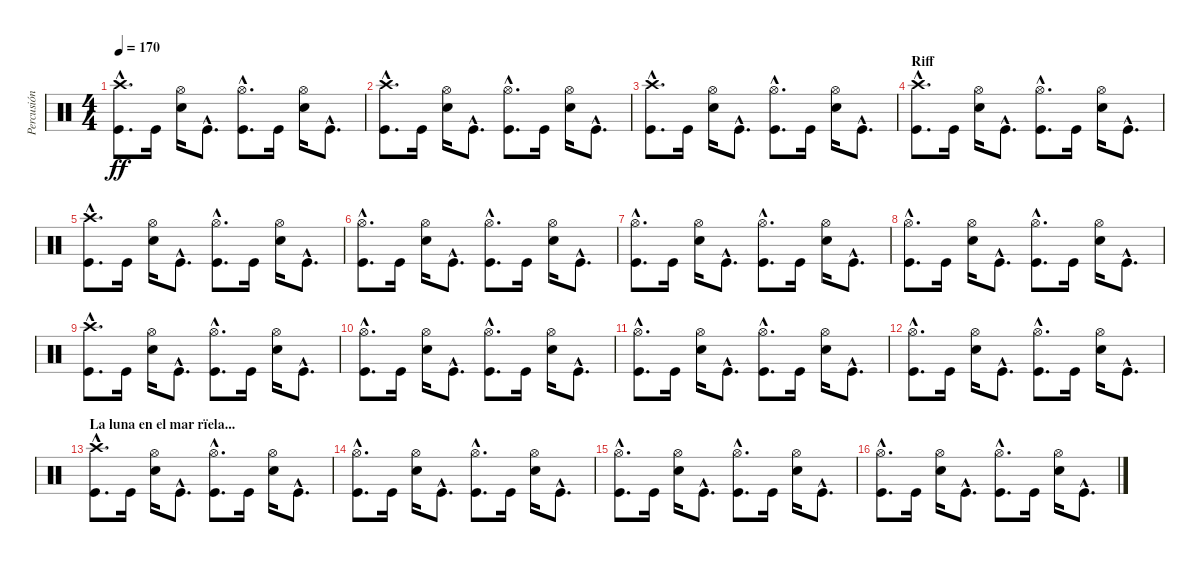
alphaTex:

\track ("Percusión" "Percusión") {instrument percussion}
\staff {score}
\articulation defaults
\ts (4 4)
\tempo 170
\clef neutral
\ks c
("Crash high (hit)"{hac} "Kick (hit)"{hac}).8{d dy ff} "Kick (hit)".16 ("Hi-Hat (open)" "Snare (hit) 2").16 "Kick (hit)"{hac}.8{d} ("Hi-Hat (open)"{hac} "Kick (hit)"{hac}).8{d} "Kick (hit)".16 ("Hi-Hat (open)" "Snare (hit) 2").16 "Kick (hit)"{hac}.8{d} |
("Crash high (hit)"{hac} "Kick (hit)"{hac}).8{d} "Kick (hit)".16 ("Hi-Hat (open)" "Snare (hit) 2").16 "Kick (hit)"{hac}.8{d} ("Hi-Hat (open)"{hac} "Kick (hit)"{hac}).8{d} "Kick (hit)".16 ("Hi-Hat (open)" "Snare (hit) 2").16 "Kick (hit)"{hac}.8{d} |
("Crash high (hit)"{hac} "Kick (hit)"{hac}).8{d} "Kick (hit)".16 ("Hi-Hat (open)" "Snare (hit) 2").16 "Kick (hit)"{hac}.8{d} ("Hi-Hat (open)"{hac} "Kick (hit)"{hac}).8{d} "Kick (hit)".16 ("Hi-Hat (open)" "Snare (hit) 2").16 "Kick (hit)"{hac}.8{d} |
\section ("" "Riff")
("Crash high (hit)"{hac} "Kick (hit)"{hac}).8{d} "Kick (hit)".16 ("Hi-Hat (open)" "Snare (hit) 2").16 "Kick (hit)"{hac}.8{d} ("Hi-Hat (open)"{hac} "Kick (hit)"{hac}).8{d} "Kick (hit)".16 ("Hi-Hat (open)" "Snare (hit) 2").16 "Kick (hit)"{hac}.8{d} |
("Crash high (hit)"{hac} "Kick (hit)"{hac}).8{d} "Kick (hit)".16 ("Hi-Hat (open)" "Snare (hit) 2").16 "Kick (hit)"{hac}.8{d} ("Hi-Hat (open)"{hac} "Kick (hit)"{hac}).8{d} "Kick (hit)".16 ("Hi-Hat (open)" "Snare (hit) 2").16 "Kick (hit)"{hac}.8{d} |
("Hi-Hat (open)"{hac} "Kick (hit)"{hac}).8{d} "Kick (hit)".16 ("Hi-Hat (open)" "Snare (hit) 2").16 "Kick (hit)"{hac}.8{d} ("Hi-Hat (open)"{hac} "Kick (hit)"{hac}).8{d} "Kick (hit)".16 ("Hi-Hat (open)" "Snare (hit) 2").16 "Kick (hit)"{hac}.8{d} |
("Hi-Hat (open)"{hac} "Kick (hit)"{hac}).8{d} "Kick (hit)".16 ("Hi-Hat (open)" "Snare (hit) 2").16 "Kick (hit)"{hac}.8{d} ("Hi-Hat (open)"{hac} "Kick (hit)"{hac}).8{d} "Kick (hit)".16 ("Hi-Hat (open)" "Snare (hit) 2").16 "Kick (hit)"{hac}.8{d} |
("Hi-Hat (open)"{hac} "Kick (hit)"{hac}).8{d} "Kick (hit)".16 ("Hi-Hat (open)" "Snare (hit) 2").16 "Kick (hit)"{hac}.8{d} ("Hi-Hat (open)"{hac} "Kick (hit)"{hac}).8{d} "Kick (hit)".16 ("Hi-Hat (open)" "Snare (hit) 2").16 "Kick (hit)"{hac}.8{d} |
("Crash high (hit)"{hac} "Kick (hit)"{hac}).8{d} "Kick (hit)".16 ("Hi-Hat (open)" "Snare (hit) 2").16 "Kick (hit)"{hac}.8{d} ("Hi-Hat (open)"{hac} "Kick (hit)"{hac}).8{d} "Kick (hit)".16 ("Hi-Hat (open)" "Snare (hit) 2").16 "Kick (hit)"{hac}.8{d} |
("Hi-Hat (open)"{hac} "Kick (hit)"{hac}).8{d} "Kick (hit)".16 ("Hi-Hat (open)" "Snare (hit) 2").16 "Kick (hit)"{hac}.8{d} ("Hi-Hat (open)"{hac} "Kick (hit)"{hac}).8{d} "Kick (hit)".16 ("Hi-Hat (open)" "Snare (hit) 2").16 "Kick (hit)"{hac}.8{d} |
("Hi-Hat (open)"{hac} "Kick (hit)"{hac}).8{d} "Kick (hit)".16 ("Hi-Hat (open)" "Snare (hit) 2").16 "Kick (hit)"{hac}.8{d} ("Hi-Hat (open)"{hac} "Kick (hit)"{hac}).8{d} "Kick (hit)".16 ("Hi-Hat (open)" "Snare (hit) 2").16 "Kick (hit)"{hac}.8{d} |
("Hi-Hat (open)"{hac} "Kick (hit)"{hac}).8{d} "Kick (hit)".16 ("Hi-Hat (open)" "Snare (hit) 2").16 "Kick (hit)"{hac}.8{d} ("Hi-Hat (open)"{hac} "Kick (hit)"{hac}).8{d} "Kick (hit)".16 ("Hi-Hat (open)" "Snare (hit) 2").16 "Kick (hit)"{hac}.8{d} |
\section ("" "La luna en el mar rïela...")
("Crash high (hit)"{hac} "Kick (hit)"{hac}).8{d} "Kick (hit)".16 ("Hi-Hat (open)" "Snare (hit) 2").16 "Kick (hit)"{hac}.8{d} ("Hi-Hat (open)"{hac} "Kick (hit)"{hac}).8{d} "Kick (hit)".16 ("Hi-Hat (open)" "Snare (hit) 2").16 "Kick (hit)"{hac}.8{d} |
("Hi-Hat (open)"{hac} "Kick (hit)"{hac}).8{d} "Kick (hit)".16 ("Hi-Hat (open)" "Snare (hit) 2").16 "Kick (hit)"{hac}.8{d} ("Hi-Hat (open)"{hac} "Kick (hit)"{hac}).8{d} "Kick (hit)".16 ("Hi-Hat (open)" "Snare (hit) 2").16 "Kick (hit)"{hac}.8{d} |
("Hi-Hat (open)"{hac} "Kick (hit)"{hac}).8{d} "Kick (hit)".16 ("Hi-Hat (open)" "Snare (hit) 2").16 "Kick (hit)"{hac}.8{d} ("Hi-Hat (open)"{hac} "Kick (hit)"{hac}).8{d} "Kick (hit)".16 ("Hi-Hat (open)" "Snare (hit) 2").16 "Kick (hit)"{hac}.8{d} |
("Hi-Hat (open)"{hac} "Kick (hit)"{hac}).8{d} "Kick (hit)".16 ("Hi-Hat (open)" "Snare (hit) 2").16 "Kick (hit)"{hac}.8{d} ("Hi-Hat (open)"{hac} "Kick (hit)"{hac}).8{d} "Kick (hit)".16 ("Hi-Hat (open)" "Snare (hit) 2").16 "Kick (hit)"{hac}.8{d}
